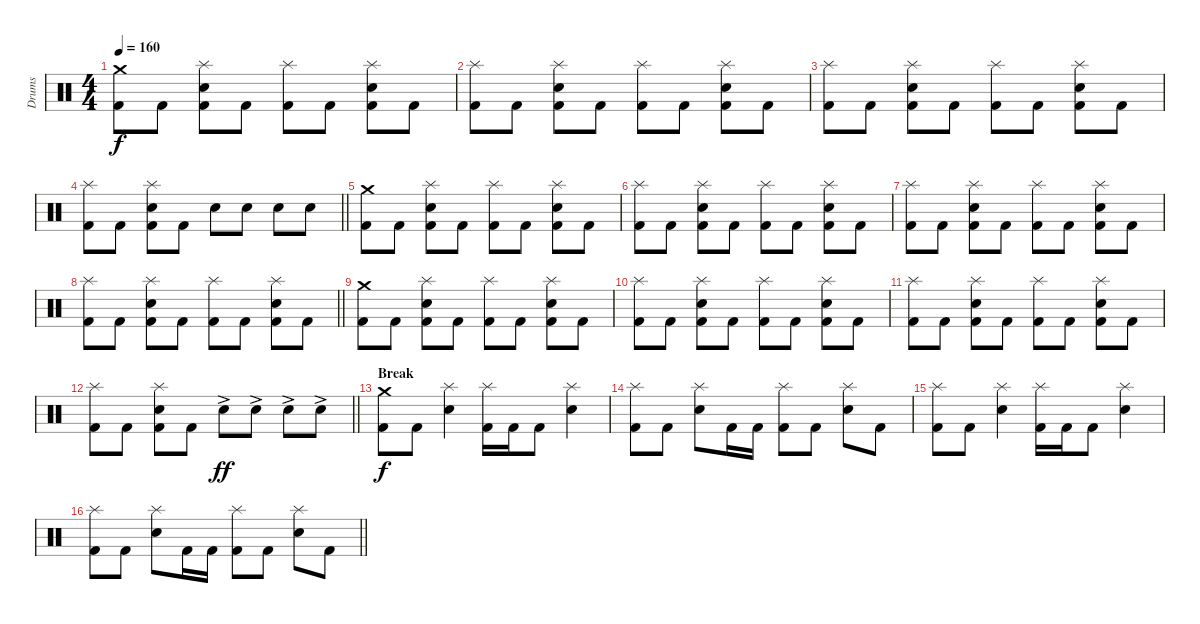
\track ("Drums" "Drums") {instrument percussion}
\staff {score}
\articulation defaults
\ts (4 4)
\section ("" "")
\tempo 160
\clef neutral
\ks c
("Kick (hit) 2" "Crash medium (hit)").8{dy f} "Kick (hit) 2".8 ("Kick (hit) 2" "Snare (hit) 2" "Splash (hit)").8 "Kick (hit) 2".8 ("Kick (hit) 2" "Splash (hit)").8 "Kick (hit) 2".8 ("Kick (hit) 2" "Snare (hit) 2" "Splash (hit)").8 "Kick (hit) 2".8 |
("Kick (hit) 2" "Splash (hit)").8 "Kick (hit) 2".8 ("Kick (hit) 2" "Snare (hit) 2" "Splash (hit)").8 "Kick (hit) 2".8 ("Kick (hit) 2" "Splash (hit)").8 "Kick (hit) 2".8 ("Kick (hit) 2" "Snare (hit) 2" "Splash (hit)").8 "Kick (hit) 2".8 |
("Kick (hit) 2" "Splash (hit)").8 "Kick (hit) 2".8 ("Kick (hit) 2" "Snare (hit) 2" "Splash (hit)").8 "Kick (hit) 2".8 ("Kick (hit) 2" "Splash (hit)").8 "Kick (hit) 2".8 ("Kick (hit) 2" "Snare (hit) 2" "Splash (hit)").8 "Kick (hit) 2".8 |
\barLineRight lightlight
("Kick (hit) 2" "Splash (hit)").8 "Kick (hit) 2".8 ("Kick (hit) 2" "Snare (hit) 2" "Splash (hit)").8 "Kick (hit) 2".8 "Snare (hit) 2".8 "Snare (hit) 2".8 "Snare (hit) 2".8 "Snare (hit) 2".8 |
\section ("" "")
("Kick (hit) 2" "Crash medium (hit)").8 "Kick (hit) 2".8 ("Kick (hit) 2" "Snare (hit) 2" "Splash (hit)").8 "Kick (hit) 2".8 ("Kick (hit) 2" "Splash (hit)").8 "Kick (hit) 2".8 ("Kick (hit) 2" "Snare (hit) 2" "Splash (hit)").8 "Kick (hit) 2".8 |
("Kick (hit) 2" "Splash (hit)").8 "Kick (hit) 2".8 ("Kick (hit) 2" "Snare (hit) 2" "Splash (hit)").8 "Kick (hit) 2".8 ("Kick (hit) 2" "Splash (hit)").8 "Kick (hit) 2".8 ("Kick (hit) 2" "Snare (hit) 2" "Splash (hit)").8 "Kick (hit) 2".8 |
("Kick (hit) 2" "Splash (hit)").8 "Kick (hit) 2".8 ("Kick (hit) 2" "Snare (hit) 2" "Splash (hit)").8 "Kick (hit) 2".8 ("Kick (hit) 2" "Splash (hit)").8 "Kick (hit) 2".8 ("Kick (hit) 2" "Snare (hit) 2" "Splash (hit)").8 "Kick (hit) 2".8 |
\barLineRight lightlight
("Kick (hit) 2" "Splash (hit)").8 "Kick (hit) 2".8 ("Kick (hit) 2" "Snare (hit) 2" "Splash (hit)").8 "Kick (hit) 2".8 ("Kick (hit) 2" "Splash (hit)").8 "Kick (hit) 2".8 ("Kick (hit) 2" "Snare (hit) 2" "Splash (hit)").8 "Kick (hit) 2".8 |
\section ("" "")
("Kick (hit) 2" "Crash medium (hit)").8 "Kick (hit) 2".8 ("Kick (hit) 2" "Snare (hit) 2" "Splash (hit)").8 "Kick (hit) 2".8 ("Kick (hit) 2" "Splash (hit)").8 "Kick (hit) 2".8 ("Kick (hit) 2" "Snare (hit) 2" "Splash (hit)").8 "Kick (hit) 2".8 |
("Kick (hit) 2" "Splash (hit)").8 "Kick (hit) 2".8 ("Kick (hit) 2" "Snare (hit) 2" "Splash (hit)").8 "Kick (hit) 2".8 ("Kick (hit) 2" "Splash (hit)").8 "Kick (hit) 2".8 ("Kick (hit) 2" "Snare (hit) 2" "Splash (hit)").8 "Kick (hit) 2".8 |
("Kick (hit) 2" "Splash (hit)").8 "Kick (hit) 2".8 ("Kick (hit) 2" "Snare (hit) 2" "Splash (hit)").8 "Kick (hit) 2".8 ("Kick (hit) 2" "Splash (hit)").8 "Kick (hit) 2".8 ("Kick (hit) 2" "Snare (hit) 2" "Splash (hit)").8 "Kick (hit) 2".8 |
\barLineRight lightlight
("Kick (hit) 2" "Splash (hit)").8 "Kick (hit) 2".8 ("Kick (hit) 2" "Snare (hit) 2" "Splash (hit)").8 "Kick (hit) 2".8 "Snare (hit) 2"{ac}.8{dy ff} "Snare (hit) 2"{ac}.8 "Snare (hit) 2"{ac}.8 "Snare (hit) 2"{ac}.8 |
\section ("" "Break")
("Kick (hit) 2" "Crash medium (hit)").8{dy f} "Kick (hit) 2".8 ("Snare (hit) 2" "Splash (hit)").4 ("Kick (hit) 2" "Splash (hit)").16 "Kick (hit) 2".16 "Kick (hit) 2".8 ("Snare (hit) 2" "Splash (hit)").4 |
("Kick (hit) 2" "Splash (hit)").8 "Kick (hit) 2".8 ("Snare (hit) 2" "Splash (hit)").8 "Kick (hit) 2".16 "Kick (hit) 2".16 ("Kick (hit) 2" "Splash (hit)").8 "Kick (hit) 2".8 ("Snare (hit) 2" "Splash (hit)").8 "Kick (hit) 2".8 |
("Kick (hit) 2" "Splash (hit)").8 "Kick (hit) 2".8 ("Snare (hit) 2" "Splash (hit)").4 ("Kick (hit) 2" "Splash (hit)").16 "Kick (hit) 2".16 "Kick (hit) 2".8 ("Snare (hit) 2" "Splash (hit)").4 |
\barLineRight lightlight
("Kick (hit) 2" "Splash (hit)").8 "Kick (hit) 2".8 ("Snare (hit) 2" "Splash (hit)").8 "Kick (hit) 2".16 "Kick (hit) 2".16 ("Kick (hit) 2" "Splash (hit)").8 "Kick (hit) 2".8 ("Snare (hit) 2" "Splash (hit)").8 "Kick (hit) 2".8
